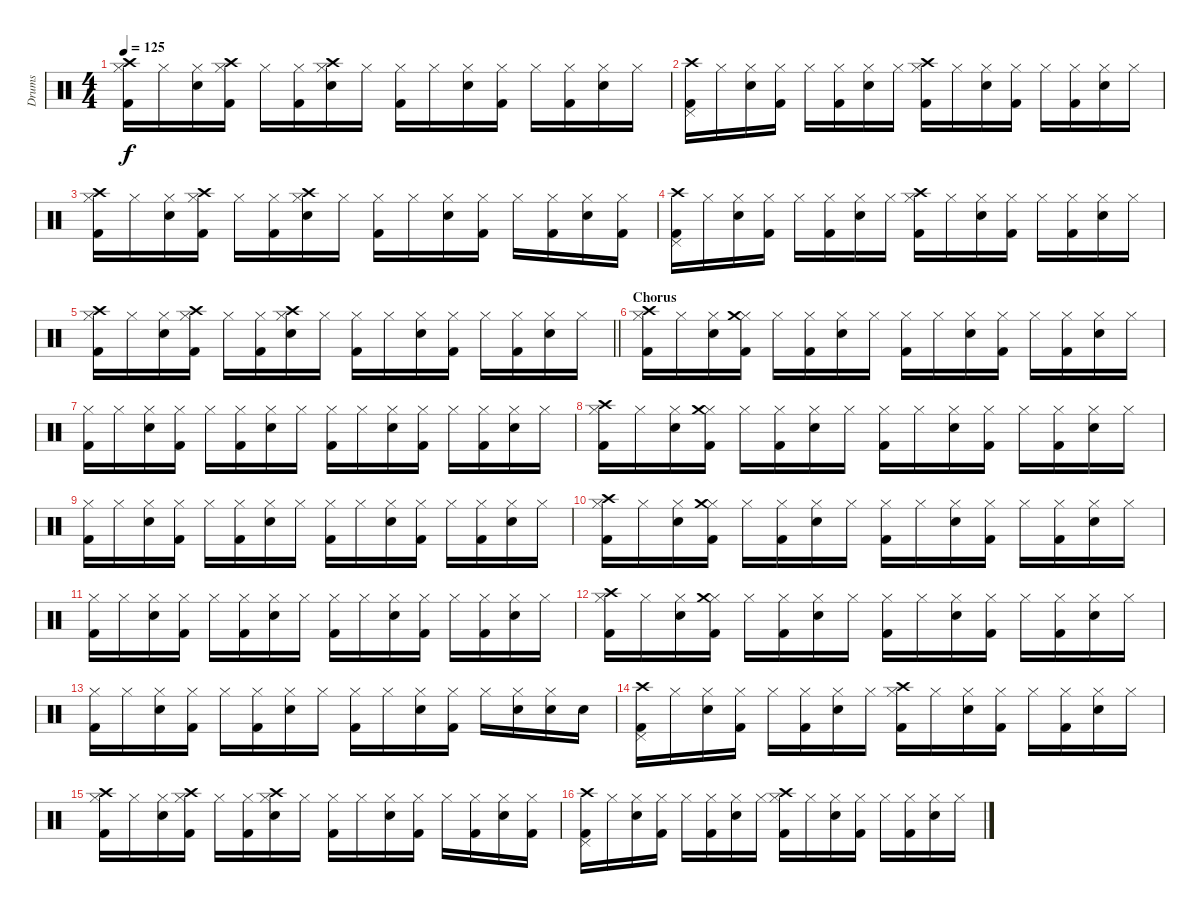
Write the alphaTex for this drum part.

\track ("Drums" "Drums") {instrument percussion}
\staff {score}
\articulation defaults
\ts (4 4)
\tempo 125
\clef neutral
\ks c
("Kick (hit) 2" "Hi-Hat (closed)" "Crash high (hit)").16{dy f} "Hi-Hat (closed)".16 ("Snare (hit) 2" "Hi-Hat (closed)").16 ("Kick (hit) 2" "Hi-Hat (closed)" "Crash high (hit)").16 "Hi-Hat (closed)".16 ("Kick (hit) 2" "Hi-Hat (closed)").16 ("Snare (hit) 2" "Hi-Hat (closed)" "Crash high (hit)").16 "Hi-Hat (closed)".16 ("Kick (hit) 2" "Hi-Hat (closed)").16 "Hi-Hat (closed)".16 ("Snare (hit) 2" "Hi-Hat (closed)").16 ("Kick (hit) 2" "Hi-Hat (closed)").16 "Hi-Hat (closed)".16 ("Kick (hit) 2" "Hi-Hat (closed)").16 ("Snare (hit) 2" "Hi-Hat (closed)").16 "Hi-Hat (closed)".16 |
("Kick (hit) 2" "Pedal Hi-Hat (hit)" "Crash high (hit)").16 "Hi-Hat (closed)".16 ("Snare (hit) 2" "Hi-Hat (closed)").16 ("Kick (hit) 2" "Hi-Hat (closed)").16 "Hi-Hat (closed)".16 ("Kick (hit) 2" "Hi-Hat (closed)").16 ("Snare (hit) 2" "Hi-Hat (closed)").16 "Hi-Hat (closed)".16 ("Kick (hit) 2" "Hi-Hat (closed)" "Crash high (hit)").16 "Hi-Hat (closed)".16 ("Snare (hit) 2" "Hi-Hat (closed)").16 ("Kick (hit) 2" "Hi-Hat (closed)").16 "Hi-Hat (closed)".16 ("Kick (hit) 2" "Hi-Hat (closed)").16 ("Snare (hit) 2" "Hi-Hat (closed)").16 "Hi-Hat (closed)".16 |
("Kick (hit) 2" "Hi-Hat (closed)" "Crash high (hit)").16 "Hi-Hat (closed)".16 ("Snare (hit) 2" "Hi-Hat (closed)").16 ("Kick (hit) 2" "Hi-Hat (closed)" "Crash high (hit)").16 "Hi-Hat (closed)".16 ("Kick (hit) 2" "Hi-Hat (closed)").16 ("Snare (hit) 2" "Hi-Hat (closed)" "Crash high (hit)").16 "Hi-Hat (closed)".16 ("Kick (hit) 2" "Hi-Hat (closed)").16 "Hi-Hat (closed)".16 ("Snare (hit) 2" "Hi-Hat (closed)").16 ("Kick (hit) 2" "Hi-Hat (closed)").16 "Hi-Hat (closed)".16 ("Kick (hit) 2" "Hi-Hat (closed)").16 ("Snare (hit) 2" "Hi-Hat (closed)").16 ("Kick (hit) 2" "Hi-Hat (closed)").16 |
("Kick (hit) 2" "Pedal Hi-Hat (hit)" "Crash high (hit)").16 "Hi-Hat (closed)".16 ("Snare (hit) 2" "Hi-Hat (closed)").16 ("Kick (hit) 2" "Hi-Hat (closed)").16 "Hi-Hat (closed)".16 ("Kick (hit) 2" "Hi-Hat (closed)").16 ("Snare (hit) 2" "Hi-Hat (closed)").16 "Hi-Hat (closed)".16 ("Kick (hit) 2" "Hi-Hat (closed)" "Crash high (hit)").16 "Hi-Hat (closed)".16 ("Snare (hit) 2" "Hi-Hat (closed)").16 ("Kick (hit) 2" "Hi-Hat (closed)").16 "Hi-Hat (closed)".16 ("Kick (hit) 2" "Hi-Hat (closed)").16 ("Snare (hit) 2" "Hi-Hat (closed)").16 "Hi-Hat (closed)".16 |
\barLineRight lightlight
("Kick (hit) 2" "Hi-Hat (closed)" "Crash high (hit)").16 "Hi-Hat (closed)".16 ("Snare (hit) 2" "Hi-Hat (closed)").16 ("Kick (hit) 2" "Hi-Hat (closed)" "Crash high (hit)").16 "Hi-Hat (closed)".16 ("Kick (hit) 2" "Hi-Hat (closed)").16 ("Snare (hit) 2" "Hi-Hat (closed)" "Crash high (hit)").16 "Hi-Hat (closed)".16 ("Kick (hit) 2" "Hi-Hat (closed)").16 "Hi-Hat (closed)".16 ("Snare (hit) 2" "Hi-Hat (closed)").16 ("Kick (hit) 2" "Hi-Hat (closed)").16 "Hi-Hat (closed)".16 ("Kick (hit) 2" "Hi-Hat (closed)").16 ("Snare (hit) 2" "Hi-Hat (closed)").16 "Hi-Hat (closed)".16 |
\section ("" "Chorus")
("Kick (hit) 2" "Hi-Hat (closed)" "Crash high (hit)").16 "Hi-Hat (closed)".16 ("Snare (hit) 2" "Hi-Hat (closed)").16 ("Kick (hit) 2" "Hi-Hat (closed)" "Crash medium (hit)").16 "Hi-Hat (closed)".16 ("Kick (hit) 2" "Hi-Hat (closed)").16 ("Snare (hit) 2" "Hi-Hat (closed)").16 "Hi-Hat (closed)".16 ("Kick (hit) 2" "Hi-Hat (closed)").16 "Hi-Hat (closed)".16 ("Snare (hit) 2" "Hi-Hat (closed)").16 ("Kick (hit) 2" "Hi-Hat (closed)").16 "Hi-Hat (closed)".16 ("Kick (hit) 2" "Hi-Hat (closed)").16 ("Snare (hit) 2" "Hi-Hat (closed)").16 "Hi-Hat (closed)".16 |
("Kick (hit) 2" "Hi-Hat (closed)").16 "Hi-Hat (closed)".16 ("Snare (hit) 2" "Hi-Hat (closed)").16 ("Kick (hit) 2" "Hi-Hat (closed)").16 "Hi-Hat (closed)".16 ("Kick (hit) 2" "Hi-Hat (closed)").16 ("Snare (hit) 2" "Hi-Hat (closed)").16 "Hi-Hat (closed)".16 ("Kick (hit) 2" "Hi-Hat (closed)").16 "Hi-Hat (closed)".16 ("Snare (hit) 2" "Hi-Hat (closed)").16 ("Kick (hit) 2" "Hi-Hat (closed)").16 "Hi-Hat (closed)".16 ("Kick (hit) 2" "Hi-Hat (closed)").16 ("Snare (hit) 2" "Hi-Hat (closed)").16 "Hi-Hat (closed)".16 |
("Kick (hit) 2" "Hi-Hat (closed)" "Crash high (hit)").16 "Hi-Hat (closed)".16 ("Snare (hit) 2" "Hi-Hat (closed)").16 ("Kick (hit) 2" "Hi-Hat (closed)" "Crash medium (hit)").16 "Hi-Hat (closed)".16 ("Kick (hit) 2" "Hi-Hat (closed)").16 ("Snare (hit) 2" "Hi-Hat (closed)").16 "Hi-Hat (closed)".16 ("Kick (hit) 2" "Hi-Hat (closed)").16 "Hi-Hat (closed)".16 ("Snare (hit) 2" "Hi-Hat (closed)").16 ("Kick (hit) 2" "Hi-Hat (closed)").16 "Hi-Hat (closed)".16 ("Kick (hit) 2" "Hi-Hat (closed)").16 ("Snare (hit) 2" "Hi-Hat (closed)").16 "Hi-Hat (closed)".16 |
("Kick (hit) 2" "Hi-Hat (closed)").16 "Hi-Hat (closed)".16 ("Snare (hit) 2" "Hi-Hat (closed)").16 ("Kick (hit) 2" "Hi-Hat (closed)").16 "Hi-Hat (closed)".16 ("Kick (hit) 2" "Hi-Hat (closed)").16 ("Snare (hit) 2" "Hi-Hat (closed)").16 "Hi-Hat (closed)".16 ("Kick (hit) 2" "Hi-Hat (closed)").16 "Hi-Hat (closed)".16 ("Snare (hit) 2" "Hi-Hat (closed)").16 ("Kick (hit) 2" "Hi-Hat (closed)").16 "Hi-Hat (closed)".16 ("Kick (hit) 2" "Hi-Hat (closed)").16 ("Snare (hit) 2" "Hi-Hat (closed)").16 "Hi-Hat (closed)".16 |
("Kick (hit) 2" "Hi-Hat (closed)" "Crash high (hit)").16 "Hi-Hat (closed)".16 ("Snare (hit) 2" "Hi-Hat (closed)").16 ("Kick (hit) 2" "Hi-Hat (closed)" "Crash medium (hit)").16 "Hi-Hat (closed)".16 ("Kick (hit) 2" "Hi-Hat (closed)").16 ("Snare (hit) 2" "Hi-Hat (closed)").16 "Hi-Hat (closed)".16 ("Kick (hit) 2" "Hi-Hat (closed)").16 "Hi-Hat (closed)".16 ("Snare (hit) 2" "Hi-Hat (closed)").16 ("Kick (hit) 2" "Hi-Hat (closed)").16 "Hi-Hat (closed)".16 ("Kick (hit) 2" "Hi-Hat (closed)").16 ("Snare (hit) 2" "Hi-Hat (closed)").16 "Hi-Hat (closed)".16 |
("Kick (hit) 2" "Hi-Hat (closed)").16 "Hi-Hat (closed)".16 ("Snare (hit) 2" "Hi-Hat (closed)").16 ("Kick (hit) 2" "Hi-Hat (closed)").16 "Hi-Hat (closed)".16 ("Kick (hit) 2" "Hi-Hat (closed)").16 ("Snare (hit) 2" "Hi-Hat (closed)").16 "Hi-Hat (closed)".16 ("Kick (hit) 2" "Hi-Hat (closed)").16 "Hi-Hat (closed)".16 ("Snare (hit) 2" "Hi-Hat (closed)").16 ("Kick (hit) 2" "Hi-Hat (closed)").16 "Hi-Hat (closed)".16 ("Kick (hit) 2" "Hi-Hat (closed)").16 ("Snare (hit) 2" "Hi-Hat (closed)").16 "Hi-Hat (closed)".16 |
("Kick (hit) 2" "Hi-Hat (closed)" "Crash high (hit)").16 "Hi-Hat (closed)".16 ("Snare (hit) 2" "Hi-Hat (closed)").16 ("Kick (hit) 2" "Hi-Hat (closed)" "Crash medium (hit)").16 "Hi-Hat (closed)".16 ("Kick (hit) 2" "Hi-Hat (closed)").16 ("Snare (hit) 2" "Hi-Hat (closed)").16 "Hi-Hat (closed)".16 ("Kick (hit) 2" "Hi-Hat (closed)").16 "Hi-Hat (closed)".16 ("Snare (hit) 2" "Hi-Hat (closed)").16 ("Kick (hit) 2" "Hi-Hat (closed)").16 "Hi-Hat (closed)".16 ("Kick (hit) 2" "Hi-Hat (closed)").16 ("Snare (hit) 2" "Hi-Hat (closed)").16 "Hi-Hat (closed)".16 |
("Kick (hit) 2" "Hi-Hat (closed)").16 "Hi-Hat (closed)".16 ("Snare (hit) 2" "Hi-Hat (closed)").16 ("Kick (hit) 2" "Hi-Hat (closed)").16 "Hi-Hat (closed)".16 ("Kick (hit) 2" "Hi-Hat (closed)").16 ("Snare (hit) 2" "Hi-Hat (closed)").16 "Hi-Hat (closed)".16 ("Kick (hit) 2" "Hi-Hat (closed)").16 "Hi-Hat (closed)".16 ("Snare (hit) 2" "Hi-Hat (closed)").16 ("Kick (hit) 2" "Hi-Hat (closed)").16 "Hi-Hat (closed)".16 ("Snare (hit) 2" "Hi-Hat (closed)").16 ("Snare (hit) 2" "Hi-Hat (closed)").16 "Snare (hit) 2".16 |
("Kick (hit) 2" "Pedal Hi-Hat (hit)" "Crash high (hit)").16 "Hi-Hat (closed)".16 ("Snare (hit) 2" "Hi-Hat (closed)").16 ("Kick (hit) 2" "Hi-Hat (closed)").16 "Hi-Hat (closed)".16 ("Kick (hit) 2" "Hi-Hat (closed)").16 ("Snare (hit) 2" "Hi-Hat (closed)").16 "Hi-Hat (closed)".16 ("Kick (hit) 2" "Hi-Hat (closed)" "Crash high (hit)").16 "Hi-Hat (closed)".16 ("Snare (hit) 2" "Hi-Hat (closed)").16 ("Kick (hit) 2" "Hi-Hat (closed)").16 "Hi-Hat (closed)".16 ("Kick (hit) 2" "Hi-Hat (closed)").16 ("Snare (hit) 2" "Hi-Hat (closed)").16 "Hi-Hat (closed)".16 |
("Kick (hit) 2" "Hi-Hat (closed)" "Crash high (hit)").16 "Hi-Hat (closed)".16 ("Snare (hit) 2" "Hi-Hat (closed)").16 ("Kick (hit) 2" "Hi-Hat (closed)" "Crash high (hit)").16 "Hi-Hat (closed)".16 ("Kick (hit) 2" "Hi-Hat (closed)").16 ("Snare (hit) 2" "Hi-Hat (closed)" "Crash high (hit)").16 "Hi-Hat (closed)".16 ("Kick (hit) 2" "Hi-Hat (closed)").16 "Hi-Hat (closed)".16 ("Snare (hit) 2" "Hi-Hat (closed)").16 ("Kick (hit) 2" "Hi-Hat (closed)").16 "Hi-Hat (closed)".16 ("Kick (hit) 2" "Hi-Hat (closed)").16 ("Snare (hit) 2" "Hi-Hat (closed)").16 ("Kick (hit) 2" "Hi-Hat (closed)").16 |
("Kick (hit) 2" "Pedal Hi-Hat (hit)" "Crash high (hit)").16 "Hi-Hat (closed)".16 ("Snare (hit) 2" "Hi-Hat (closed)").16 ("Kick (hit) 2" "Hi-Hat (closed)").16 "Hi-Hat (closed)".16 ("Kick (hit) 2" "Hi-Hat (closed)").16 ("Snare (hit) 2" "Hi-Hat (closed)").16 "Hi-Hat (closed)".16 ("Kick (hit) 2" "Hi-Hat (closed)" "Crash high (hit)").16 "Hi-Hat (closed)".16 ("Snare (hit) 2" "Hi-Hat (closed)").16 ("Kick (hit) 2" "Hi-Hat (closed)").16 "Hi-Hat (closed)".16 ("Kick (hit) 2" "Hi-Hat (closed)").16 ("Snare (hit) 2" "Hi-Hat (closed)").16 "Hi-Hat (closed)".16
